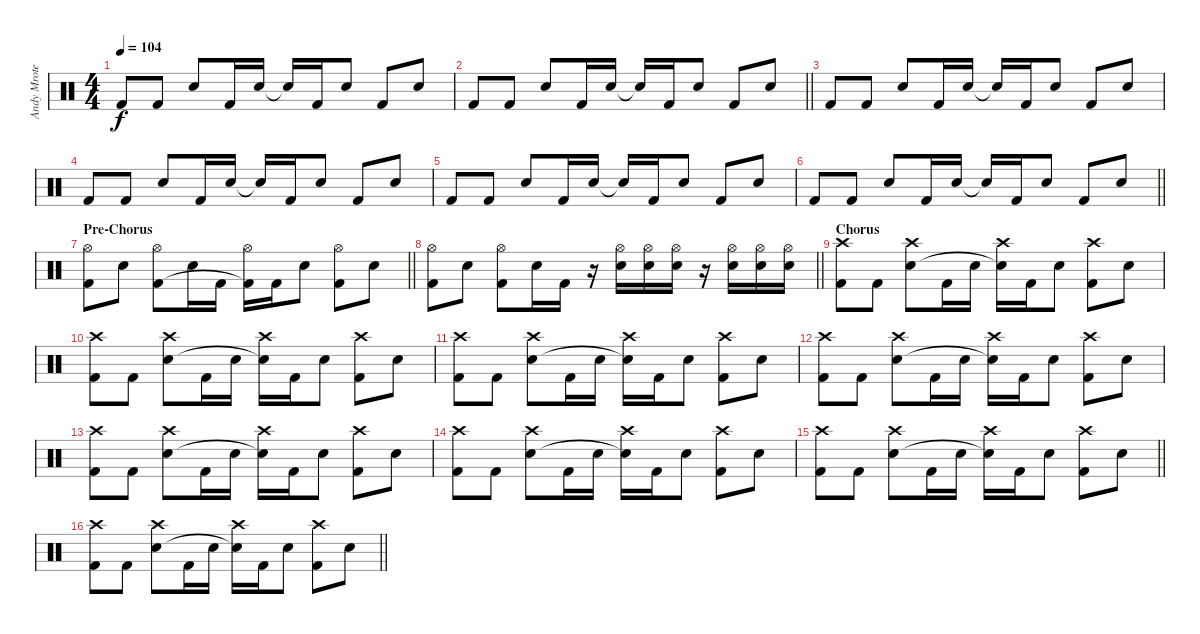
\track ("Andy Mrotek (Percussion)" "Andy Mrote") {instrument percussion}
\staff {score}
\articulation defaults
\ts (4 4)
\tempo 104
\clef neutral
\ks c "Kick (hit) 2".8{dy f} "Kick (hit) 2".8 "Snare (hit) 2".8 "Kick (hit) 2".16 "Snare (hit) 2".16 "Snare (hit) 2"{t}.16 "Kick (hit) 2".16 "Snare (hit) 2".8 "Kick (hit) 2".8 "Snare (hit) 2".8
|
\barLineRight lightlight "Kick (hit) 2".8 "Kick (hit) 2".8 "Snare (hit) 2".8 "Kick (hit) 2".16 "Snare (hit) 2".16 "Snare (hit) 2"{t}.16 "Kick (hit) 2".16 "Snare (hit) 2".8 "Kick (hit) 2".8 "Snare (hit) 2".8
|
"Kick (hit) 2".8 "Kick (hit) 2".8 "Snare (hit) 2".8 "Kick (hit) 2".16 "Snare (hit) 2".16 "Snare (hit) 2"{t}.16 "Kick (hit) 2".16 "Snare (hit) 2".8 "Kick (hit) 2".8 "Snare (hit) 2".8 |
"Kick (hit) 2".8 "Kick (hit) 2".8 "Snare (hit) 2".8 "Kick (hit) 2".16 "Snare (hit) 2".16 "Snare (hit) 2"{t}.16 "Kick (hit) 2".16 "Snare (hit) 2".8 "Kick (hit) 2".8 "Snare (hit) 2".8 |
"Kick (hit) 2".8 "Kick (hit) 2".8 "Snare (hit) 2".8 "Kick (hit) 2".16 "Snare (hit) 2".16 "Snare (hit) 2"{t}.16 "Kick (hit) 2".16 "Snare (hit) 2".8 "Kick (hit) 2".8 "Snare (hit) 2".8 |
\barLineRight lightlight "Kick (hit) 2".8 "Kick (hit) 2".8 "Snare (hit) 2".8 "Kick (hit) 2".16 "Snare (hit) 2".16 "Snare (hit) 2"{t}.16 "Kick (hit) 2".16 "Snare (hit) 2".8 "Kick (hit) 2".8 "Snare (hit) 2".8
|
\section ("" "Pre-Chorus")
\barLineRight lightlight
("Hi-Hat (open)" "Kick (hit) 2").8 "Snare (hit) 2".8 ("Hi-Hat (open)" "Kick (hit) 2").8 "Snare (hit) 2".16 "Kick (hit) 2".16 ("Hi-Hat (open)" "Kick (hit) 2"{t}).16 "Kick (hit) 2".16 "Snare (hit) 2".8 ("Hi-Hat (open)" "Kick (hit) 2").8 "Snare (hit) 2".8 |
\barLineRight lightlight
("Hi-Hat (open)" "Kick (hit) 2").8 "Snare (hit) 2".8 ("Hi-Hat (open)" "Kick (hit) 2").8 "Snare (hit) 2".16 "Kick (hit) 2".16 r.16 ("Hi-Hat (open)" "Snare (hit) 2").16 ("Hi-Hat (open)" "Snare (hit) 2").16 ("Hi-Hat (open)" "Snare (hit) 2").16 r.16 ("Hi-Hat (open)" "Snare (hit) 2").16 ("Hi-Hat (open)" "Snare (hit) 2").16 ("Hi-Hat (open)" "Snare (hit) 2").16 |
\section ("" "Chorus")
("Crash high (hit)" "Kick (hit) 2").8 "Kick (hit) 2".8 ("Crash high (hit)" "Snare (hit) 2").8 "Kick (hit) 2".16 "Snare (hit) 2".16 ("Crash high (hit)" "Snare (hit) 2"{t}).16 "Kick (hit) 2".16 "Snare (hit) 2".8 ("Crash high (hit)" "Kick (hit) 2").8 "Snare (hit) 2".8 |
("Crash high (hit)" "Kick (hit) 2").8 "Kick (hit) 2".8 ("Crash high (hit)" "Snare (hit) 2").8 "Kick (hit) 2".16 "Snare (hit) 2".16 ("Crash high (hit)" "Snare (hit) 2"{t}).16 "Kick (hit) 2".16 "Snare (hit) 2".8 ("Crash high (hit)" "Kick (hit) 2").8 "Snare (hit) 2".8 |
("Crash high (hit)" "Kick (hit) 2").8 "Kick (hit) 2".8 ("Crash high (hit)" "Snare (hit) 2").8 "Kick (hit) 2".16 "Snare (hit) 2".16 ("Crash high (hit)" "Snare (hit) 2"{t}).16 "Kick (hit) 2".16 "Snare (hit) 2".8 ("Crash high (hit)" "Kick (hit) 2").8 "Snare (hit) 2".8 |
("Crash high (hit)" "Kick (hit) 2").8 "Kick (hit) 2".8 ("Crash high (hit)" "Snare (hit) 2").8 "Kick (hit) 2".16 "Snare (hit) 2".16 ("Crash high (hit)" "Snare (hit) 2"{t}).16 "Kick (hit) 2".16 "Snare (hit) 2".8 ("Crash high (hit)" "Kick (hit) 2").8 "Snare (hit) 2".8 |
("Crash high (hit)" "Kick (hit) 2").8 "Kick (hit) 2".8 ("Crash high (hit)" "Snare (hit) 2").8 "Kick (hit) 2".16 "Snare (hit) 2".16 ("Crash high (hit)" "Snare (hit) 2"{t}).16 "Kick (hit) 2".16 "Snare (hit) 2".8 ("Crash high (hit)" "Kick (hit) 2").8 "Snare (hit) 2".8 |
("Crash high (hit)" "Kick (hit) 2").8 "Kick (hit) 2".8 ("Crash high (hit)" "Snare (hit) 2").8 "Kick (hit) 2".16 "Snare (hit) 2".16 ("Crash high (hit)" "Snare (hit) 2"{t}).16 "Kick (hit) 2".16 "Snare (hit) 2".8 ("Crash high (hit)" "Kick (hit) 2").8 "Snare (hit) 2".8 |
\barLineRight lightlight
("Crash high (hit)" "Kick (hit) 2").8 "Kick (hit) 2".8 ("Crash high (hit)" "Snare (hit) 2").8 "Kick (hit) 2".16 "Snare (hit) 2".16 ("Crash high (hit)" "Snare (hit) 2"{t}).16 "Kick (hit) 2".16 "Snare (hit) 2".8 ("Crash high (hit)" "Kick (hit) 2").8 "Snare (hit) 2".8 |
\barLineRight lightlight
("Crash high (hit)" "Kick (hit) 2").8 "Kick (hit) 2".8 ("Crash high (hit)" "Snare (hit) 2").8 "Kick (hit) 2".16 "Snare (hit) 2".16 ("Crash high (hit)" "Snare (hit) 2"{t}).16 "Kick (hit) 2".16 "Snare (hit) 2".8 ("Crash high (hit)" "Kick (hit) 2").8 "Snare (hit) 2".8
